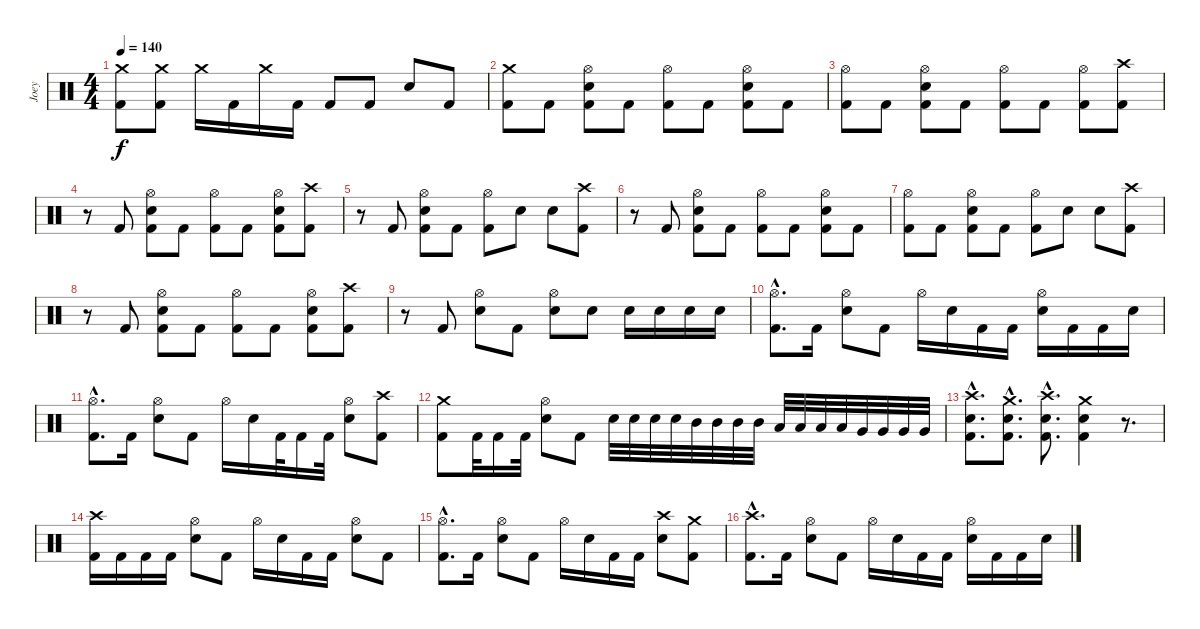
\track ("Joey" "Joey") {instrument percussion}
\staff {score}
\articulation defaults
\ts (4 4)
\tempo 140
\clef neutral
\ks c
("Crash medium (hit)" "Kick (hit) 2").8{dy f} ("Crash medium (hit)" "Kick (hit) 2").8 "Crash medium (hit)".16 "Kick (hit) 2".16 "Crash medium (hit)".16 "Kick (hit) 2".16 "Kick (hit) 2".8 "Kick (hit) 2".8 "Electric Snare (hit)".8 "Kick (hit) 2".8 |
("Crash medium (hit)" "Kick (hit) 2").8 "Kick (hit) 2".8 ("Hi-Hat (open)" "Electric Snare (hit)" "Kick (hit) 2").8 "Kick (hit) 2".8 ("Hi-Hat (open)" "Kick (hit) 2").8 "Kick (hit) 2".8 ("Hi-Hat (open)" "Electric Snare (hit)" "Kick (hit) 2").8 "Kick (hit) 2".8 |
("Hi-Hat (open)" "Kick (hit) 2").8 "Kick (hit) 2".8 ("Hi-Hat (open)" "Electric Snare (hit)" "Kick (hit) 2").8 "Kick (hit) 2".8 ("Hi-Hat (open)" "Kick (hit) 2").8 "Kick (hit) 2".8 ("Hi-Hat (open)" "Kick (hit) 2").8 ("Crash high (hit)" "Kick (hit) 2").8 |
r.8 "Kick (hit) 2".8 ("Hi-Hat (open)" "Electric Snare (hit)" "Kick (hit) 2").8 "Kick (hit) 2".8 ("Hi-Hat (open)" "Kick (hit) 2").8 "Kick (hit) 2".8 ("Hi-Hat (open)" "Electric Snare (hit)" "Kick (hit) 2").8 ("Crash high (hit)" "Kick (hit) 2").8 |
r.8 "Kick (hit) 2".8 ("Hi-Hat (open)" "Electric Snare (hit)" "Kick (hit) 2").8 "Kick (hit) 2".8 ("Hi-Hat (open)" "Kick (hit) 2").8 "Electric Snare (hit)".8 "Electric Snare (hit)".8 ("Crash high (hit)" "Kick (hit) 2").8 |
r.8 "Kick (hit) 2".8 ("Hi-Hat (open)" "Electric Snare (hit)" "Kick (hit) 2").8 "Kick (hit) 2".8 ("Hi-Hat (open)" "Kick (hit) 2").8 "Kick (hit) 2".8 ("Hi-Hat (open)" "Electric Snare (hit)" "Kick (hit) 2").8 "Kick (hit) 2".8 |
("Hi-Hat (open)" "Kick (hit) 2").8 "Kick (hit) 2".8 ("Hi-Hat (open)" "Electric Snare (hit)" "Kick (hit) 2").8 "Kick (hit) 2".8 ("Hi-Hat (open)" "Kick (hit) 2").8 "Electric Snare (hit)".8 "Electric Snare (hit)".8 ("Crash high (hit)" "Kick (hit) 2").8 |
r.8 "Kick (hit) 2".8 ("Hi-Hat (open)" "Electric Snare (hit)" "Kick (hit) 2").8 "Kick (hit) 2".8 ("Hi-Hat (open)" "Kick (hit) 2").8 "Kick (hit) 2".8 ("Hi-Hat (open)" "Electric Snare (hit)" "Kick (hit) 2").8 ("Crash high (hit)" "Kick (hit) 2").8 |
r.8 "Kick (hit) 2".8 ("Hi-Hat (open)" "Electric Snare (hit)").8 "Kick (hit) 2".8 ("Hi-Hat (open)" "Electric Snare (hit)").8 "Electric Snare (hit)".8 "Electric Snare (hit)".16 "Electric Snare (hit)".16 "Electric Snare (hit)".16 "Electric Snare (hit)".16 |
("Hi-Hat (open)"{hac} "Kick (hit) 2"{hac}).8{d} "Kick (hit) 2".16 ("Hi-Hat (open)" "Electric Snare (hit)").8 "Kick (hit) 2".8 "Hi-Hat (open)".16 "Electric Snare (hit)".16 "Kick (hit) 2".16 "Kick (hit) 2".16 ("Hi-Hat (open)" "Electric Snare (hit)").16 "Kick (hit) 2".16 "Kick (hit) 2".16 "Electric Snare (hit)".16 |
("Hi-Hat (open)"{hac} "Kick (hit) 2"{hac}).8{d} "Kick (hit) 2".16 ("Hi-Hat (open)" "Electric Snare (hit)").8 "Kick (hit) 2".8 "Hi-Hat (open)".16 "Electric Snare (hit)".16 "Kick (hit) 2".32 "Kick (hit) 2".16 "Kick (hit) 2".32 ("Hi-Hat (open)" "Electric Snare (hit)").8 ("Crash high (hit)" "Kick (hit) 2").8 |
("Crash medium (hit)" "Kick (hit) 2").8 "Kick (hit) 2".32 "Kick (hit) 2".16 "Kick (hit) 2".32 ("Hi-Hat (open)" "Electric Snare (hit)").8 "Kick (hit) 2".8 "Electric Snare (hit)".32 "Electric Snare (hit)".32 "Electric Snare (hit)".32 "Electric Snare (hit)".32 "Mid Tom (hit)".32 "Mid Tom (hit)".32 "Mid Tom (hit)".32 "Mid Tom (hit)".32 "Low Floor Tom (hit)".32 "Low Floor Tom (hit)".32 "Low Floor Tom (hit)".32 "Low Floor Tom (hit)".32 "Very Low Tom (hit)".32 "Very Low Tom (hit)".32 "Very Low Tom (hit)".32 "Very Low Tom (hit)".32 |
("Crash high (hit)"{hac} "Electric Snare (hit)"{hac} "Kick (hit) 2"{hac}).8{d} ("Crash medium (hit)"{hac} "Electric Snare (hit)"{hac} "Kick (hit) 2"{hac}).8{d} ("Crash high (hit)"{hac} "Electric Snare (hit)"{hac} "Kick (hit) 2"{hac}).8{d} ("Crash medium (hit)" "Electric Snare (hit)" "Kick (hit) 2").4 r.8{d} |
("Crash high (hit)" "Kick (hit) 2").16 "Kick (hit) 2".16 "Kick (hit) 2".16 "Kick (hit) 2".16 ("Hi-Hat (open)" "Electric Snare (hit)").8 "Kick (hit) 2".8 "Hi-Hat (open)".16 "Electric Snare (hit)".16 "Kick (hit) 2".16 "Kick (hit) 2".16 ("Hi-Hat (open)" "Electric Snare (hit)").8 "Kick (hit) 2".8 |
("Hi-Hat (open)"{hac} "Kick (hit) 2"{hac}).8{d} "Kick (hit) 2".16 ("Hi-Hat (open)" "Electric Snare (hit)").8 "Kick (hit) 2".8 "Hi-Hat (open)".16 "Electric Snare (hit)".16 "Kick (hit) 2".16 "Kick (hit) 2".16 ("Crash high (hit)" "Electric Snare (hit)").8 ("Crash medium (hit)" "Kick (hit) 2").8 |
("Crash high (hit)"{hac} "Kick (hit) 2"{hac}).8{d} "Kick (hit) 2".16 ("Hi-Hat (open)" "Electric Snare (hit)").8 "Kick (hit) 2".8 "Hi-Hat (open)".16 "Electric Snare (hit)".16 "Kick (hit) 2".16 "Kick (hit) 2".16 ("Hi-Hat (open)" "Electric Snare (hit)").16 "Kick (hit) 2".16 "Kick (hit) 2".16 "Electric Snare (hit)".16
